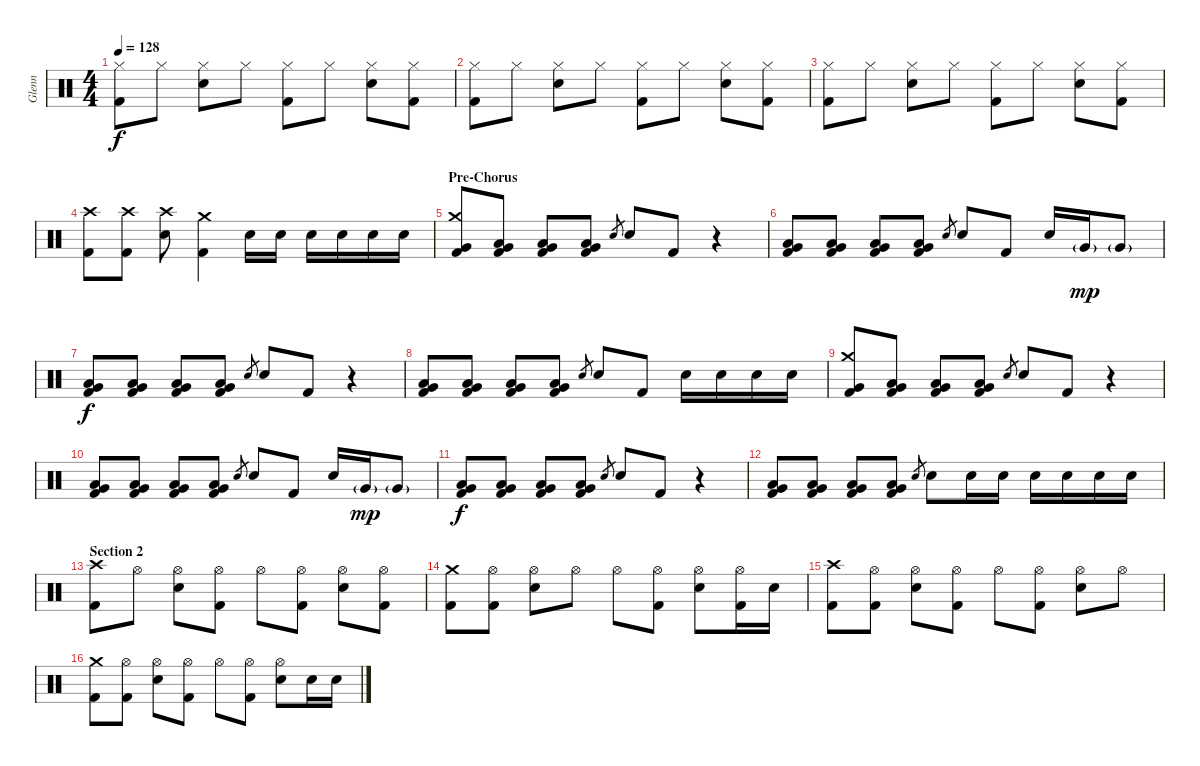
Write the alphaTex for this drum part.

\track ("Glenn" "Glenn") {instrument percussion}
\staff {score}
\articulation defaults
\ts (4 4)
\tempo 128
\clef neutral
\ks c
("Hi-Hat (closed)" "Kick (hit) 2").8{dy f} "Hi-Hat (closed)".8 ("Hi-Hat (closed)" "Electric Snare (hit)").8 "Hi-Hat (closed)".8 ("Hi-Hat (closed)" "Kick (hit) 2").8 "Hi-Hat (closed)".8 ("Hi-Hat (closed)" "Electric Snare (hit)").8 ("Hi-Hat (closed)" "Kick (hit) 2").8 |
("Hi-Hat (closed)" "Kick (hit) 2").8 "Hi-Hat (closed)".8 ("Hi-Hat (closed)" "Electric Snare (hit)").8 "Hi-Hat (closed)".8 ("Hi-Hat (closed)" "Kick (hit) 2").8 "Hi-Hat (closed)".8 ("Hi-Hat (closed)" "Electric Snare (hit)").8 ("Hi-Hat (closed)" "Kick (hit) 2").8 |
("Hi-Hat (closed)" "Kick (hit) 2").8 "Hi-Hat (closed)".8 ("Hi-Hat (closed)" "Electric Snare (hit)").8 "Hi-Hat (closed)".8 ("Hi-Hat (closed)" "Kick (hit) 2").8 "Hi-Hat (closed)".8 ("Hi-Hat (closed)" "Electric Snare (hit)").8 ("Hi-Hat (closed)" "Kick (hit) 2").8 |
("Crash high (hit)" "Kick (hit) 2").8 ("Crash high (hit)" "Kick (hit) 2").8 ("Crash high (hit)" "Electric Snare (hit)").8 ("Crash medium (hit)" "Kick (hit) 2").4 "Electric Snare (hit)".16 "Electric Snare (hit)".16 "Electric Snare (hit)".16 "Electric Snare (hit)".16 "Electric Snare (hit)".16 "Electric Snare (hit)".16 |
\section ("" "Pre-Chorus")
("Crash medium (hit)" "Very Low Tom (hit)" "Kick (hit) 2").8 ("Low Tom (hit)" "Very Low Tom (hit)" "Kick (hit) 2").8 ("Low Tom (hit)" "Very Low Tom (hit)" "Kick (hit) 2").8 ("Low Tom (hit)" "Very Low Tom (hit)" "Kick (hit) 2").8 "Electric Snare (hit)".8{gr} "Electric Snare (hit)".8 "Kick (hit) 2".8 r.4 |
("Low Tom (hit)" "Very Low Tom (hit)" "Kick (hit) 2").8 ("Low Tom (hit)" "Very Low Tom (hit)" "Kick (hit) 2").8 ("Low Tom (hit)" "Very Low Tom (hit)" "Kick (hit) 2").8 ("Low Tom (hit)" "Very Low Tom (hit)" "Kick (hit) 2").8 "Electric Snare (hit)".8{gr} "Electric Snare (hit)".8 "Kick (hit) 2".8 "Electric Snare (hit)".16 "Very Low Tom (hit)"{g}.16{dy mp} "Very Low Tom (hit)"{g}.8 |
("Low Tom (hit)" "Very Low Tom (hit)" "Kick (hit) 2").8{dy f} ("Low Tom (hit)" "Very Low Tom (hit)" "Kick (hit) 2").8 ("Low Tom (hit)" "Very Low Tom (hit)" "Kick (hit) 2").8 ("Low Tom (hit)" "Very Low Tom (hit)" "Kick (hit) 2").8 "Electric Snare (hit)".8{gr} "Electric Snare (hit)".8 "Kick (hit) 2".8 r.4 |
("Low Tom (hit)" "Very Low Tom (hit)" "Kick (hit) 2").8 ("Low Tom (hit)" "Very Low Tom (hit)" "Kick (hit) 2").8 ("Low Tom (hit)" "Very Low Tom (hit)" "Kick (hit) 2").8 ("Low Tom (hit)" "Very Low Tom (hit)" "Kick (hit) 2").8 "Electric Snare (hit)".8{gr} "Electric Snare (hit)".8 "Kick (hit) 2".8 "Electric Snare (hit)".16 "Electric Snare (hit)".16 "Electric Snare (hit)".16 "Electric Snare (hit)".16 |
("Crash medium (hit)" "Very Low Tom (hit)" "Kick (hit) 2").8 ("Low Tom (hit)" "Very Low Tom (hit)" "Kick (hit) 2").8 ("Low Tom (hit)" "Very Low Tom (hit)" "Kick (hit) 2").8 ("Low Tom (hit)" "Very Low Tom (hit)" "Kick (hit) 2").8 "Electric Snare (hit)".8{gr} "Electric Snare (hit)".8 "Kick (hit) 2".8 r.4 |
("Low Tom (hit)" "Very Low Tom (hit)" "Kick (hit) 2").8 ("Low Tom (hit)" "Very Low Tom (hit)" "Kick (hit) 2").8 ("Low Tom (hit)" "Very Low Tom (hit)" "Kick (hit) 2").8 ("Low Tom (hit)" "Very Low Tom (hit)" "Kick (hit) 2").8 "Electric Snare (hit)".8{gr} "Electric Snare (hit)".8 "Kick (hit) 2".8 "Electric Snare (hit)".16 "Very Low Tom (hit)"{g}.16{dy mp} "Very Low Tom (hit)"{g}.8 |
("Low Tom (hit)" "Very Low Tom (hit)" "Kick (hit) 2").8{dy f} ("Low Tom (hit)" "Very Low Tom (hit)" "Kick (hit) 2").8 ("Low Tom (hit)" "Very Low Tom (hit)" "Kick (hit) 2").8 ("Low Tom (hit)" "Very Low Tom (hit)" "Kick (hit) 2").8 "Electric Snare (hit)".8{gr} "Electric Snare (hit)".8 "Kick (hit) 2".8 r.4 |
("Low Tom (hit)" "Very Low Tom (hit)" "Kick (hit) 2").8 ("Low Tom (hit)" "Very Low Tom (hit)" "Kick (hit) 2").8 ("Low Tom (hit)" "Very Low Tom (hit)" "Kick (hit) 2").8 ("Low Tom (hit)" "Very Low Tom (hit)" "Kick (hit) 2").8 "Electric Snare (hit)".8{gr} "Electric Snare (hit)".8 "Electric Snare (hit)".16 "Electric Snare (hit)".16 "Electric Snare (hit)".16 "Electric Snare (hit)".16 "Electric Snare (hit)".16 "Electric Snare (hit)".16 |
\section ("" "Section 2")
("Crash high (hit)" "Kick (hit) 2").8 "Hi-Hat (open)".8 ("Hi-Hat (open)" "Electric Snare (hit)").8 ("Hi-Hat (open)" "Kick (hit) 2").8 "Hi-Hat (open)".8 ("Hi-Hat (open)" "Kick (hit) 2").8 ("Hi-Hat (open)" "Electric Snare (hit)").8 ("Hi-Hat (open)" "Kick (hit) 2").8 |
("Crash medium (hit)" "Kick (hit) 2").8 ("Hi-Hat (open)" "Kick (hit) 2").8 ("Hi-Hat (open)" "Electric Snare (hit)").8 "Hi-Hat (open)".8 "Hi-Hat (open)".8 ("Hi-Hat (open)" "Kick (hit) 2").8 ("Hi-Hat (open)" "Electric Snare (hit)").8 ("Hi-Hat (open)" "Kick (hit) 2").16 "Electric Snare (hit)".16 |
("Crash high (hit)" "Kick (hit) 2").8 ("Hi-Hat (open)" "Kick (hit) 2").8 ("Hi-Hat (open)" "Electric Snare (hit)").8 ("Hi-Hat (open)" "Kick (hit) 2").8 "Hi-Hat (open)".8 ("Hi-Hat (open)" "Kick (hit) 2").8 ("Hi-Hat (open)" "Electric Snare (hit)").8 "Hi-Hat (open)".8 |
("Crash medium (hit)" "Kick (hit) 2").8 ("Hi-Hat (open)" "Kick (hit) 2").8 ("Hi-Hat (open)" "Electric Snare (hit)").8 ("Hi-Hat (open)" "Kick (hit) 2").8 "Hi-Hat (open)".8 ("Hi-Hat (open)" "Kick (hit) 2").8 ("Hi-Hat (open)" "Electric Snare (hit)").8 "Electric Snare (hit)".16 "Electric Snare (hit)".16
